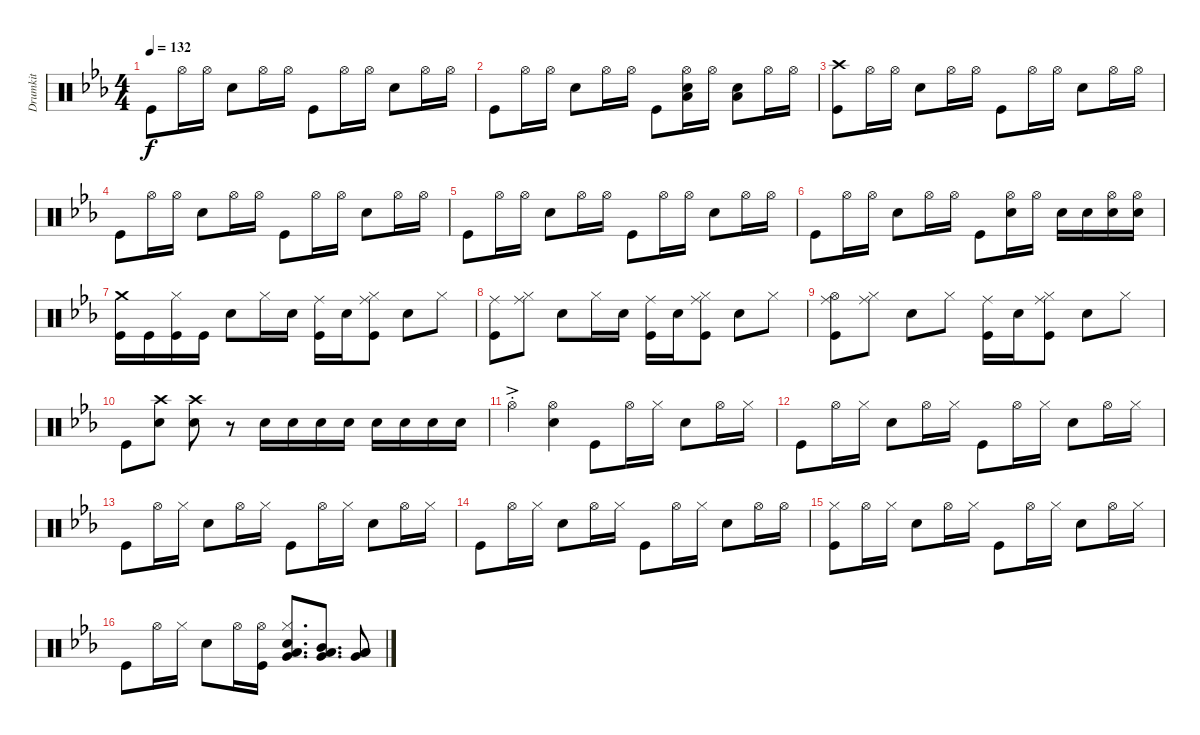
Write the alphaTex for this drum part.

\track ("Drumkit" "Drumkit") {instrument percussion}
\staff {score}
\articulation defaults
\ts (4 4)
\tempo 132
\clef neutral
\ks eb "Kick (hit)".8{dy f} "Hi-Hat (open)".16 "Hi-Hat (open)".16 "Snare (hit) 2".8 "Hi-Hat (open)".16 "Hi-Hat (open)".16 "Kick (hit)".8 "Hi-Hat (open)".16 "Hi-Hat (open)".16 "Snare (hit) 2".8 "Hi-Hat (open)".16 "Hi-Hat (open)".16
|
"Kick (hit)".8 "Hi-Hat (open)".16 "Hi-Hat (open)".16 "Snare (hit) 2".8 "Hi-Hat (open)".16 "Hi-Hat (open)".16 "Kick (hit)".8 ("Hi-Hat (open)" "Snare (hit) 2" "Low Floor Tom (hit)").16 "Hi-Hat (open)".16 ("Snare (hit) 2" "Low Floor Tom (hit)").8 "Hi-Hat (open)".16 "Hi-Hat (open)".16 |
("Kick (hit)" "Crash high (hit)").8 "Hi-Hat (open)".16 "Hi-Hat (open)".16 "Snare (hit) 2".8 "Hi-Hat (open)".16 "Hi-Hat (open)".16 "Kick (hit)".8 "Hi-Hat (open)".16 "Hi-Hat (open)".16 "Snare (hit) 2".8 "Hi-Hat (open)".16 "Hi-Hat (open)".16 |
"Kick (hit)".8 "Hi-Hat (open)".16 "Hi-Hat (open)".16 "Snare (hit) 2".8 "Hi-Hat (open)".16 "Hi-Hat (open)".16 "Kick (hit)".8 "Hi-Hat (open)".16 "Hi-Hat (open)".16 "Snare (hit) 2".8 "Hi-Hat (open)".16 "Hi-Hat (open)".16 |
"Kick (hit)".8 "Hi-Hat (open)".16 "Hi-Hat (open)".16 "Snare (hit) 2".8 "Hi-Hat (open)".16 "Hi-Hat (open)".16 "Kick (hit)".8 "Hi-Hat (open)".16 "Hi-Hat (open)".16 "Snare (hit) 2".8 "Hi-Hat (open)".16 "Hi-Hat (open)".16 |
"Kick (hit)".8 "Hi-Hat (open)".16 "Hi-Hat (open)".16 "Snare (hit) 2".8 "Hi-Hat (open)".16 "Hi-Hat (open)".16 "Kick (hit)".8 ("Hi-Hat (open)" "Snare (hit) 2").16 "Hi-Hat (open)".16 "Snare (hit) 2".16 "Snare (hit) 2".16 ("Hi-Hat (open)" "Snare (hit) 2").16 ("Snare (hit) 2" "Hi-Hat (open)").16 |
("Kick (hit)" "Crash medium (hit)").16 "Kick (hit)".16 ("Kick (hit)" "Hi-Hat (closed)").16 "Kick (hit)".16 "Snare (hit) 2".8 "Hi-Hat (closed)".16 "Snare (hit) 2".16 ("Kick (hit)" "Ride (middle)").16 "Snare (hit) 2".16 ("Kick (hit)" "Ride (middle)" "Hi-Hat (closed)").8 "Snare (hit) 2".8 "Hi-Hat (closed)".8 |
("Kick (hit)" "Ride (middle)").8 ("Ride (middle)" "Hi-Hat (closed)").8 "Snare (hit) 2".8 "Hi-Hat (closed)".16 "Snare (hit) 2".16 ("Kick (hit)" "Ride (middle)").16 "Snare (hit) 2".16 ("Kick (hit)" "Ride (middle)" "Hi-Hat (closed)").8 "Snare (hit) 2".8 "Hi-Hat (closed)".8 |
("Kick (hit)" "Ride (middle)" "Hi-Hat (open)").8 ("Ride (middle)" "Hi-Hat (closed)").8 "Snare (hit) 2".8 "Hi-Hat (closed)".8 ("Kick (hit)" "Ride (middle)").16 "Snare (hit) 2".16 ("Kick (hit)" "Ride (middle)" "Hi-Hat (closed)").8 "Snare (hit) 2".8 "Hi-Hat (closed)".8 |
"Kick (hit)".8 ("Snare (hit) 2" "Crash high (hit)").8 ("Snare (hit) 2" "Crash high (hit)").8 r.8 "Snare (hit) 2".16 "Snare (hit) 2".16 "Snare (hit) 2".16 "Snare (hit) 2".16 "Snare (hit) 2".16 "Snare (hit) 2".16 "Snare (hit) 2".16 "Snare (hit) 2".16 |
"Hi-Hat (open)"{ac st}.4 ("Snare (hit) 2" "Hi-Hat (open)").4 "Kick (hit)".8 "Hi-Hat (open)".16 "Hi-Hat (closed)".16 "Snare (hit) 2".8 "Hi-Hat (open)".16 "Hi-Hat (closed)".16 |
"Kick (hit)".8 "Hi-Hat (open)".16 "Hi-Hat (closed)".16 "Snare (hit) 2".8 "Hi-Hat (open)".16 "Hi-Hat (closed)".16 "Kick (hit)".8 "Hi-Hat (open)".16 "Hi-Hat (closed)".16 "Snare (hit) 2".8 "Hi-Hat (open)".16 "Hi-Hat (closed)".16 |
"Kick (hit)".8 "Hi-Hat (open)".16 "Hi-Hat (closed)".16 "Snare (hit) 2".8 "Hi-Hat (open)".16 "Hi-Hat (closed)".16 "Kick (hit)".8 "Hi-Hat (open)".16 "Hi-Hat (closed)".16 "Snare (hit) 2".8 "Hi-Hat (open)".16 "Hi-Hat (closed)".16 |
"Kick (hit)".8 "Hi-Hat (open)".16 "Hi-Hat (closed)".16 "Snare (hit) 2".8 "Hi-Hat (open)".16 "Hi-Hat (closed)".16 "Kick (hit)".8 "Hi-Hat (open)".16 "Hi-Hat (closed)".16 "Snare (hit) 2".8 "Hi-Hat (open)".16 "Hi-Hat (open)".16 |
("Kick (hit)" "Hi-Hat (closed)").8 "Hi-Hat (open)".16 "Hi-Hat (closed)".16 "Snare (hit) 2".8 "Hi-Hat (open)".16 "Hi-Hat (closed)".16 "Kick (hit)".8 "Hi-Hat (open)".16 "Hi-Hat (closed)".16 "Snare (hit) 2".8 "Hi-Hat (open)".16 "Hi-Hat (closed)".16 |
"Kick (hit)".8 "Hi-Hat (open)".16 "Hi-Hat (closed)".16 "Snare (hit) 2".8 "Hi-Hat (open)".16 ("Hi-Hat (open)" "Kick (hit)").16 ("Snare (hit) 2" "Very Low Tom (hit)" "Low Floor Tom (hit)" "Hi-Hat (closed)").8{d} ("Low Tom (hit)" "Very Low Tom (hit)" "Mid Tom (hit)").8{d} ("Low Floor Tom (hit)" "Very Low Tom (hit)" "Low Tom (hit)").8
